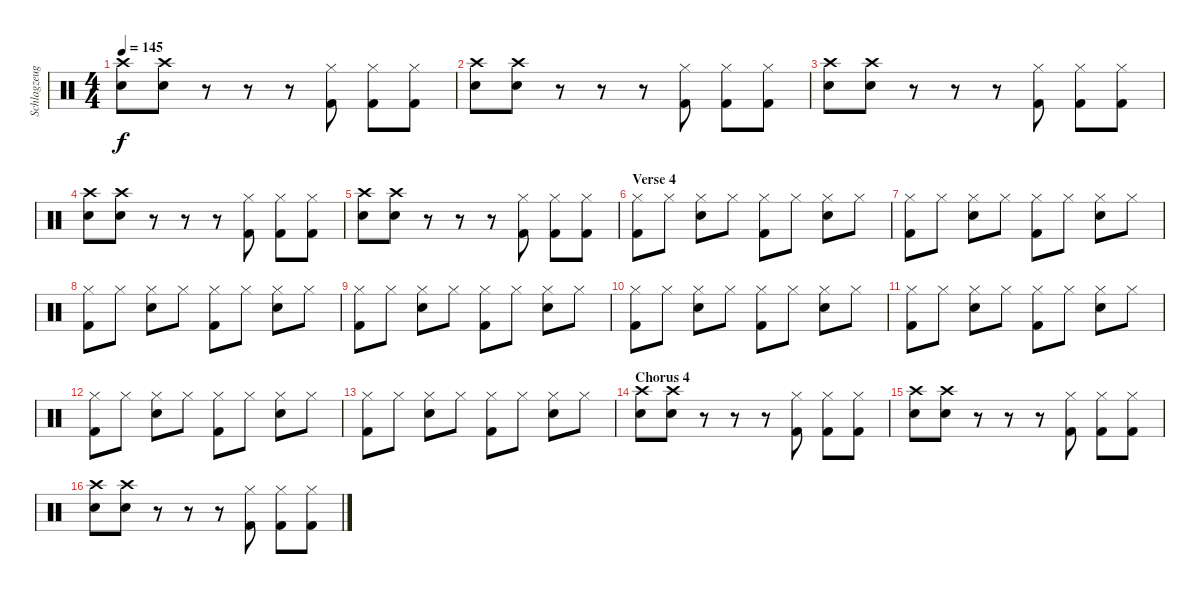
\track ("Schlagzeug" "Schlagzeug") {instrument percussion}
\staff {score}
\articulation defaults
\ts (4 4)
\tempo 145
\clef neutral
\ks c
("Snare (hit) 2" "Crash high (hit)").8{dy f} ("Snare (hit) 2" "Crash high (hit)").8 r.8 r.8 r.8 ("Kick (hit) 2" "Hi-Hat (closed)").8 ("Kick (hit) 2" "Hi-Hat (closed)").8 ("Kick (hit) 2" "Hi-Hat (closed)").8 |
("Snare (hit) 2" "Crash high (hit)").8 ("Snare (hit) 2" "Crash high (hit)").8 r.8 r.8 r.8 ("Kick (hit) 2" "Hi-Hat (closed)").8 ("Kick (hit) 2" "Hi-Hat (closed)").8 ("Kick (hit) 2" "Hi-Hat (closed)").8 |
("Snare (hit) 2" "Crash high (hit)").8 ("Snare (hit) 2" "Crash high (hit)").8 r.8 r.8 r.8 ("Kick (hit) 2" "Hi-Hat (closed)").8 ("Kick (hit) 2" "Hi-Hat (closed)").8 ("Kick (hit) 2" "Hi-Hat (closed)").8 |
("Snare (hit) 2" "Crash high (hit)").8 ("Snare (hit) 2" "Crash high (hit)").8 r.8 r.8 r.8 ("Kick (hit) 2" "Hi-Hat (closed)").8 ("Kick (hit) 2" "Hi-Hat (closed)").8 ("Kick (hit) 2" "Hi-Hat (closed)").8 |
("Snare (hit) 2" "Crash high (hit)").8 ("Snare (hit) 2" "Crash high (hit)").8 r.8 r.8 r.8 ("Kick (hit) 2" "Hi-Hat (closed)").8 ("Kick (hit) 2" "Hi-Hat (closed)").8 ("Kick (hit) 2" "Hi-Hat (closed)").8 |
\section ("" "Verse 4")
("Kick (hit) 2" "Hi-Hat (closed)").8 "Hi-Hat (closed)".8 ("Snare (hit) 2" "Hi-Hat (closed)").8 "Hi-Hat (closed)".8 ("Kick (hit) 2" "Hi-Hat (closed)").8 "Hi-Hat (closed)".8 ("Snare (hit) 2" "Hi-Hat (closed)").8 "Hi-Hat (closed)".8 |
("Kick (hit) 2" "Hi-Hat (closed)").8 "Hi-Hat (closed)".8 ("Snare (hit) 2" "Hi-Hat (closed)").8 "Hi-Hat (closed)".8 ("Kick (hit) 2" "Hi-Hat (closed)").8 "Hi-Hat (closed)".8 ("Snare (hit) 2" "Hi-Hat (closed)").8 "Hi-Hat (closed)".8 |
("Kick (hit) 2" "Hi-Hat (closed)").8 "Hi-Hat (closed)".8 ("Snare (hit) 2" "Hi-Hat (closed)").8 "Hi-Hat (closed)".8 ("Kick (hit) 2" "Hi-Hat (closed)").8 "Hi-Hat (closed)".8 ("Snare (hit) 2" "Hi-Hat (closed)").8 "Hi-Hat (closed)".8 |
("Kick (hit) 2" "Hi-Hat (closed)").8 "Hi-Hat (closed)".8 ("Snare (hit) 2" "Hi-Hat (closed)").8 "Hi-Hat (closed)".8 ("Kick (hit) 2" "Hi-Hat (closed)").8 "Hi-Hat (closed)".8 ("Snare (hit) 2" "Hi-Hat (closed)").8 "Hi-Hat (closed)".8 |
("Kick (hit) 2" "Hi-Hat (closed)").8 "Hi-Hat (closed)".8 ("Snare (hit) 2" "Hi-Hat (closed)").8 "Hi-Hat (closed)".8 ("Kick (hit) 2" "Hi-Hat (closed)").8 "Hi-Hat (closed)".8 ("Snare (hit) 2" "Hi-Hat (closed)").8 "Hi-Hat (closed)".8 |
("Kick (hit) 2" "Hi-Hat (closed)").8 "Hi-Hat (closed)".8 ("Snare (hit) 2" "Hi-Hat (closed)").8 "Hi-Hat (closed)".8 ("Kick (hit) 2" "Hi-Hat (closed)").8 "Hi-Hat (closed)".8 ("Snare (hit) 2" "Hi-Hat (closed)").8 "Hi-Hat (closed)".8 |
("Kick (hit) 2" "Hi-Hat (closed)").8 "Hi-Hat (closed)".8 ("Snare (hit) 2" "Hi-Hat (closed)").8 "Hi-Hat (closed)".8 ("Kick (hit) 2" "Hi-Hat (closed)").8 "Hi-Hat (closed)".8 ("Snare (hit) 2" "Hi-Hat (closed)").8 "Hi-Hat (closed)".8 |
("Kick (hit) 2" "Hi-Hat (closed)").8 "Hi-Hat (closed)".8 ("Snare (hit) 2" "Hi-Hat (closed)").8 "Hi-Hat (closed)".8 ("Kick (hit) 2" "Hi-Hat (closed)").8 "Hi-Hat (closed)".8 ("Snare (hit) 2" "Hi-Hat (closed)").8 "Hi-Hat (closed)".8 |
\section ("" "Chorus 4")
("Snare (hit) 2" "Crash high (hit)").8 ("Snare (hit) 2" "Crash high (hit)").8 r.8 r.8 r.8 ("Kick (hit) 2" "Hi-Hat (closed)").8 ("Kick (hit) 2" "Hi-Hat (closed)").8 ("Kick (hit) 2" "Hi-Hat (closed)").8 |
("Snare (hit) 2" "Crash high (hit)").8 ("Snare (hit) 2" "Crash high (hit)").8 r.8 r.8 r.8 ("Kick (hit) 2" "Hi-Hat (closed)").8 ("Kick (hit) 2" "Hi-Hat (closed)").8 ("Kick (hit) 2" "Hi-Hat (closed)").8 |
("Snare (hit) 2" "Crash high (hit)").8 ("Snare (hit) 2" "Crash high (hit)").8 r.8 r.8 r.8 ("Kick (hit) 2" "Hi-Hat (closed)").8 ("Kick (hit) 2" "Hi-Hat (closed)").8 ("Kick (hit) 2" "Hi-Hat (closed)").8
